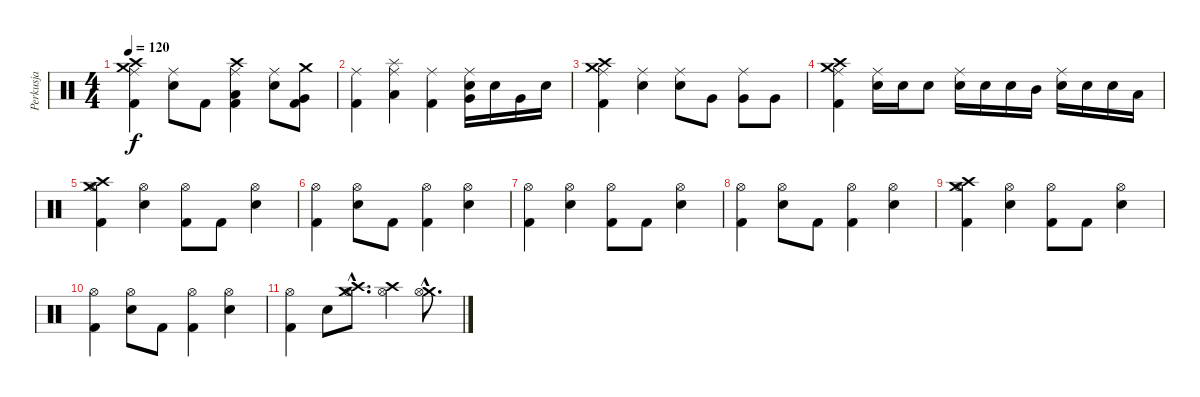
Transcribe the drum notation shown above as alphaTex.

\track ("Perkusja" "Perkusja") {instrument percussion}
\staff {score}
\articulation defaults
\ts (4 4)
\tempo 120
\clef neutral
\ks c
("Crash high (hit)" "Crash medium (hit)" "Kick (hit) 2" "Ride (middle)").4{dy f} ("Snare (hit) 2" "Ride (middle)").8 "Kick (hit) 2".8 ("Crash high (hit)" "Low Tom (hit)" "Kick (hit) 2" "Ride (middle)").4 ("Snare (hit) 2" "Ride (middle)").8 ("Crash medium (hit)" "Very Low Tom (hit)" "Kick (hit) 2").8 |
("Kick (hit) 2" "Ride (middle)").4 ("Splash (hit)" "Low Floor Tom (hit)" "Ride (middle)").4 ("Kick (hit) 2" "Ride (middle)").4 ("Snare (hit) 2" "Very Low Tom (hit)" "Ride (middle)").16 "Electric Snare (hit)".16 "Very Low Tom (hit)".16 "Electric Snare (hit)".16 |
("Crash medium (hit)" "Crash high (hit)" "Kick (hit) 2" "Ride (middle)").4 ("Snare (hit) 2" "Ride (middle)").4 ("Electric Snare (hit)" "Ride (middle)").8 "Very Low Tom (hit)".8 ("Very Low Tom (hit)" "Ride (middle)").8 "Very Low Tom (hit)".8 |
("Crash medium (hit)" "Crash high (hit)" "Kick (hit) 2" "Ride (middle)").4 ("Snare (hit) 2" "Ride (middle)").16 "Snare (hit) 2".16 "Electric Snare (hit)".8 ("Snare (hit) 2" "Ride (middle)").16 "Electric Snare (hit)".16 "Electric Snare (hit)".16 "Mid Tom (hit)".16 ("Electric Snare (hit)" "Ride (middle)").16 "Snare (hit) 2".16 "Snare (hit) 2".16 "Low Tom (hit)".16 |
("Crash high (hit)" "Crash medium (hit)" "Kick (hit) 2" "Hi-Hat (open)").4 ("Snare (hit) 2" "Hi-Hat (open)").4 ("Kick (hit) 2" "Hi-Hat (open)").8 "Kick (hit) 2".8 ("Snare (hit) 2" "Hi-Hat (open)").4 |
("Kick (hit) 2" "Hi-Hat (open)").4 ("Snare (hit) 2" "Hi-Hat (open)").8 "Kick (hit) 2".8 ("Kick (hit) 2" "Hi-Hat (open)").4 ("Snare (hit) 2" "Hi-Hat (open)").4 |
("Kick (hit) 2" "Hi-Hat (open)").4 ("Snare (hit) 2" "Hi-Hat (open)").4 ("Kick (hit) 2" "Hi-Hat (open)").8 "Kick (hit) 2".8 ("Snare (hit) 2" "Hi-Hat (open)").4 |
("Kick (hit) 2" "Hi-Hat (open)").4 ("Snare (hit) 2" "Hi-Hat (open)").8 "Kick (hit) 2".8 ("Kick (hit) 2" "Hi-Hat (open)").4 ("Snare (hit) 2" "Hi-Hat (open)").4 |
("Crash high (hit)" "Crash medium (hit)" "Kick (hit) 2" "Hi-Hat (open)").4 ("Snare (hit) 2" "Hi-Hat (open)").4 ("Kick (hit) 2" "Hi-Hat (open)").8 "Kick (hit) 2".8 ("Snare (hit) 2" "Hi-Hat (open)").4 |
("Kick (hit) 2" "Hi-Hat (open)").4 ("Snare (hit) 2" "Hi-Hat (open)").8 "Kick (hit) 2".8 ("Kick (hit) 2" "Hi-Hat (open)").4 ("Snare (hit) 2" "Hi-Hat (open)").4 |
("Kick (hit) 2" "Hi-Hat (open)").4 "Snare (hit) 2".8 ("Crash medium (hit)"{hac} "Crash high (hit)"{hac} "Hi-Hat (open)"{hac}).8{d} ("Crash high (hit)" "Hi-Hat (open)").4 ("Crash medium (hit)"{hac} "Hi-Hat (open)"{hac}).8{d}
